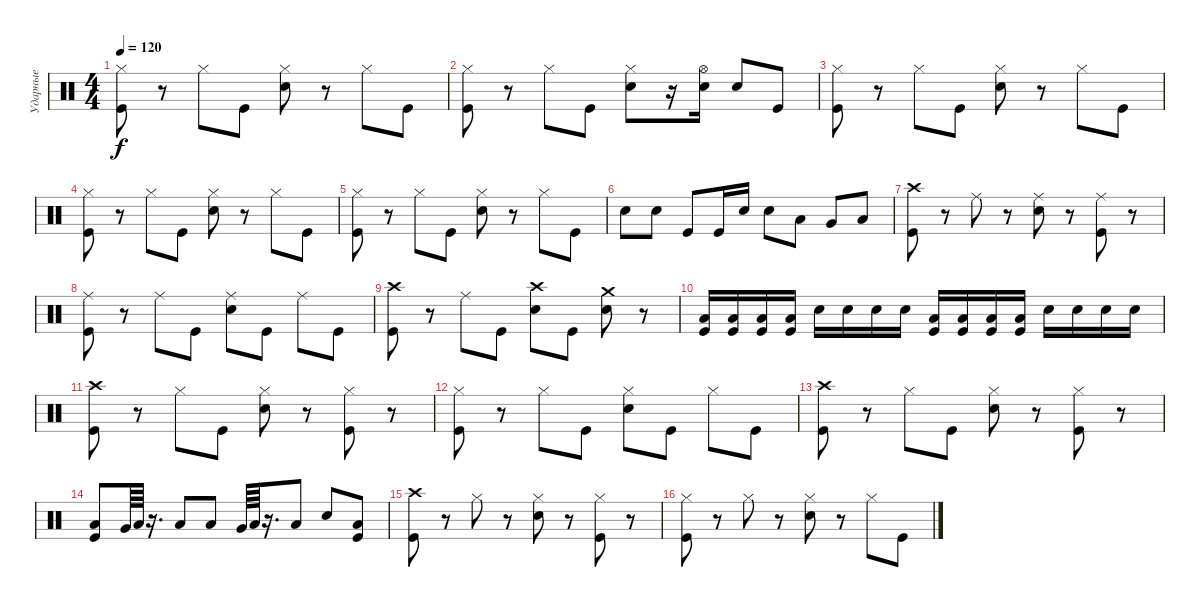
\track ("Ударные" "Ударные") {instrument percussion}
\staff {score}
\articulation defaults
\ts (4 4)
\tempo 120
\clef neutral
\ks c
("Hi-Hat (closed)" "Kick (hit)").8{dy f} r.8 "Hi-Hat (closed)".8 "Kick (hit)".8 ("Hi-Hat (closed)" "Snare (hit) 2").8 r.8 "Hi-Hat (closed)".8 "Kick (hit)".8 |
("Hi-Hat (closed)" "Kick (hit)").8 r.8 "Hi-Hat (closed)".8 "Kick (hit)".8 ("Hi-Hat (closed)" "Snare (hit) 2").8 r.16 ("Hi-Hat (open)" "Snare (hit) 2").16 "Snare (hit) 2".8 "Kick (hit)".8 |
("Hi-Hat (closed)" "Kick (hit)").8 r.8 "Hi-Hat (closed)".8 "Kick (hit)".8 ("Hi-Hat (closed)" "Snare (hit) 2").8 r.8 "Hi-Hat (closed)".8 "Kick (hit)".8 |
("Hi-Hat (closed)" "Kick (hit)").8 r.8 "Hi-Hat (closed)".8 "Kick (hit)".8 ("Hi-Hat (closed)" "Snare (hit) 2").8 r.8 "Hi-Hat (closed)".8 "Kick (hit)".8 |
("Hi-Hat (closed)" "Kick (hit)").8 r.8 "Hi-Hat (closed)".8 "Kick (hit)".8 ("Hi-Hat (closed)" "Snare (hit) 2").8 r.8 "Hi-Hat (closed)".8 "Kick (hit)".8 |
"Snare (hit) 2".8 "Snare (hit) 2".8 "Kick (hit)".8 "Kick (hit)".16 "Snare (hit) 2".16 "Snare (hit) 2".8 "Low Tom (hit)".8 "Very Low Tom (hit)".8 "Low Floor Tom (hit)".8 |
("Crash high (hit)" "Kick (hit)").8 r.8 "Ride (middle)".8 r.8 ("Ride (middle)" "Snare (hit) 2").8 r.8 ("Ride (middle)" "Kick (hit)").8 r.8 |
("Ride (middle)" "Kick (hit)").8 r.8 "Ride (middle)".8 "Kick (hit)".8 ("Ride (middle)" "Snare (hit) 2").8 "Kick (hit)".8 "Ride (middle)".8 "Kick (hit)".8 |
("Crash high (hit)" "Kick (hit)").8 r.8 "Ride (middle)".8 "Kick (hit)".8 ("Crash high (hit)" "Snare (hit) 2").8 "Kick (hit)".8 ("Crash medium (hit)" "Snare (hit) 2").8 r.8 |
("Low Tom (hit)" "Kick (hit)").16 ("Low Tom (hit)" "Kick (hit)").16 ("Low Tom (hit)" "Kick (hit)").16 ("Low Tom (hit)" "Kick (hit)").16 "Snare (hit) 2".16 "Snare (hit) 2".16 "Snare (hit) 2".16 "Snare (hit) 2".16 ("Low Tom (hit)" "Kick (hit)").16 ("Low Tom (hit)" "Kick (hit)").16 ("Low Tom (hit)" "Kick (hit)").16 ("Low Tom (hit)" "Kick (hit)").16 "Snare (hit) 2".16 "Snare (hit) 2".16 "Snare (hit) 2".16 "Snare (hit) 2".16 |
("Crash high (hit)" "Kick (hit)").8 r.8 "Hi-Hat (closed)".8 "Kick (hit)".8 ("Hi-Hat (closed)" "Snare (hit) 2").8 r.8 ("Hi-Hat (closed)" "Kick (hit)").8 r.8 |
("Hi-Hat (closed)" "Kick (hit)").8 r.8 "Hi-Hat (closed)".8 "Kick (hit)".8 ("Hi-Hat (closed)" "Snare (hit) 2").8 "Kick (hit)".8 "Hi-Hat (closed)".8 "Kick (hit)".8 |
("Crash high (hit)" "Kick (hit)").8 r.8 "Hi-Hat (closed)".8 "Kick (hit)".8 ("Hi-Hat (closed)" "Snare (hit) 2").8 r.8 ("Hi-Hat (closed)" "Kick (hit)").8 r.8 |
("Low Tom (hit)" "Kick (hit)").8 "Very Low Tom (hit)".64 "Low Tom (hit)".64 r.16{d} "Low Tom (hit)".8 "Low Tom (hit)".8 "Very Low Tom (hit)".64 "Low Tom (hit)".64 r.16{d} "Low Tom (hit)".8 "Snare (hit) 2".8 ("Low Tom (hit)" "Kick (hit)").8 |
("Crash high (hit)" "Kick (hit)").8 r.8 "Hi-Hat (closed)".8 r.8 ("Hi-Hat (closed)" "Snare (hit) 2").8 r.8 ("Hi-Hat (closed)" "Kick (hit)").8 r.8 |
("Hi-Hat (closed)" "Kick (hit)").8 r.8 "Hi-Hat (closed)".8 r.8 ("Hi-Hat (closed)" "Snare (hit) 2").8 r.8 "Hi-Hat (closed)".8 "Kick (hit)".8
